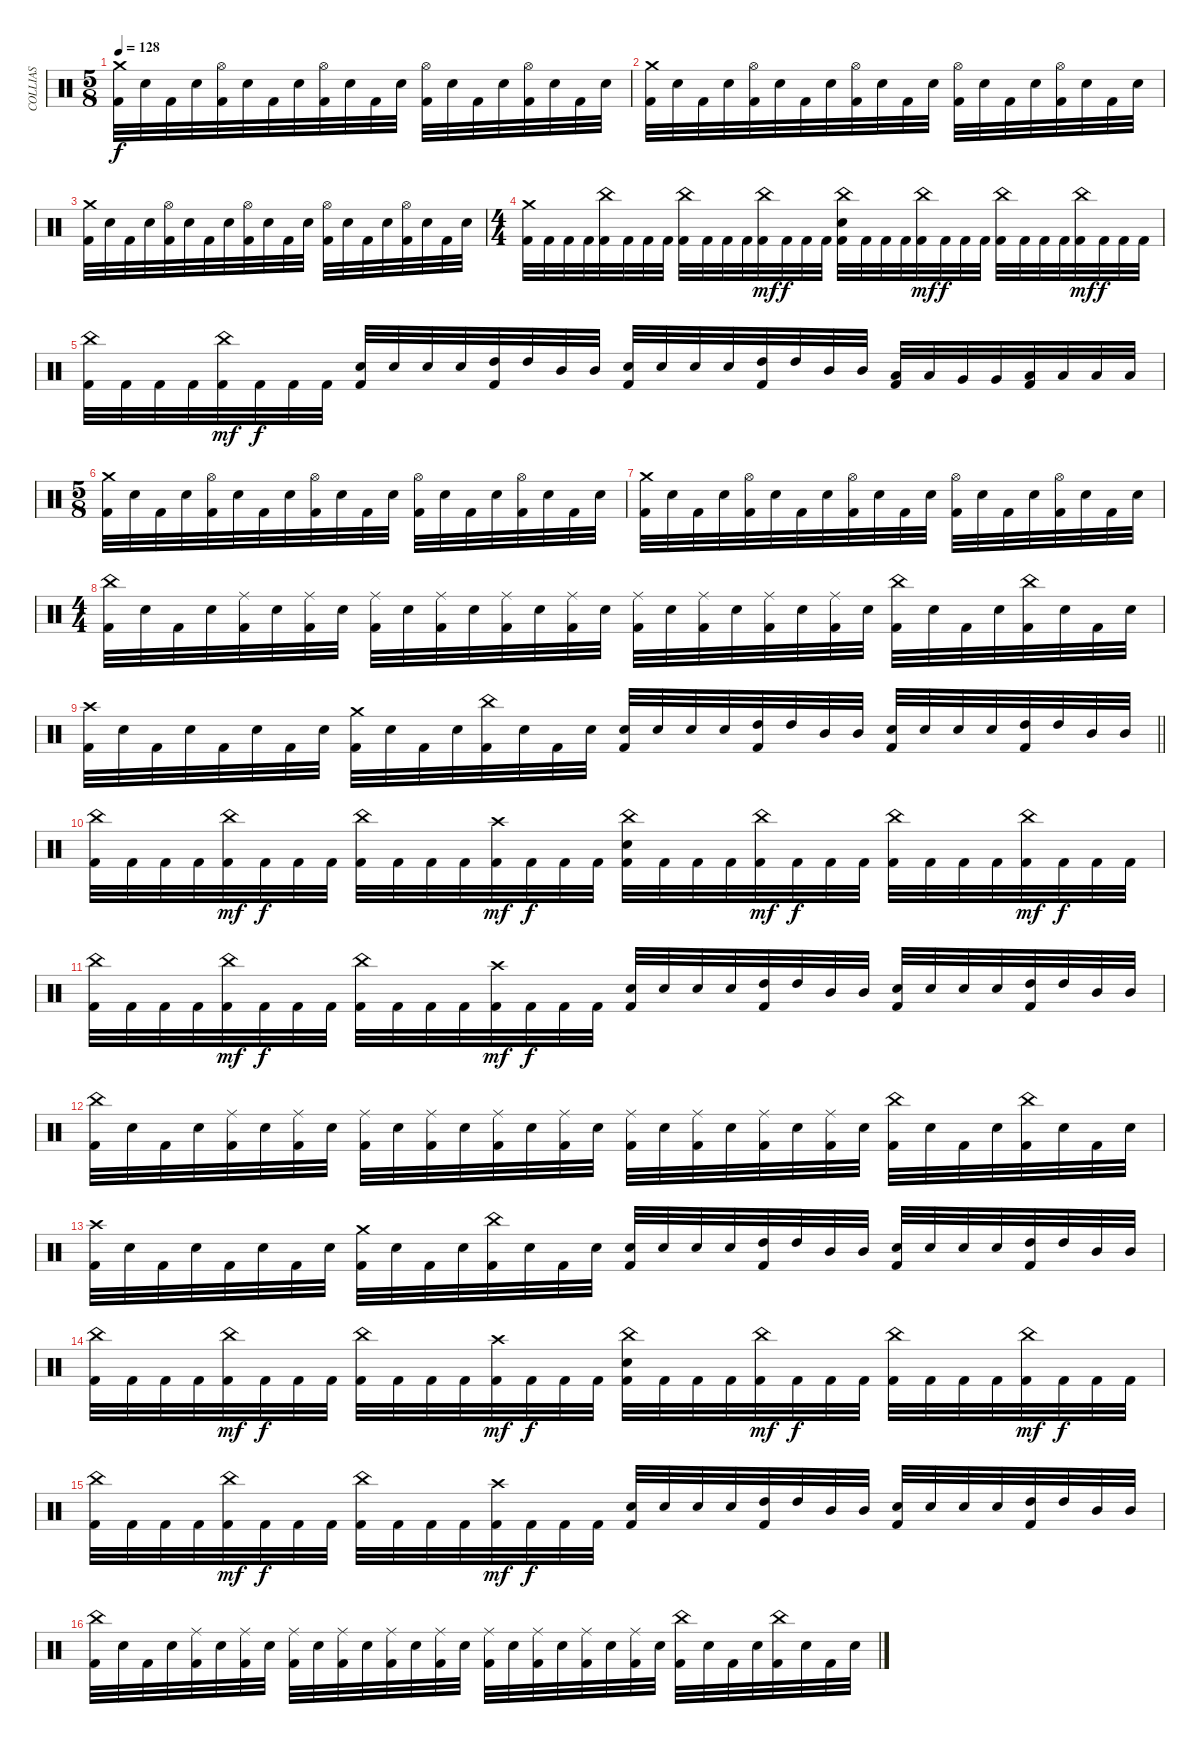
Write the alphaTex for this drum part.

\track ("COLLIAS" "COLLIAS") {instrument percussion}
\staff
\articulation defaults
\ts (5 8)
\tempo 128
\clef neutral
\ks c
("Crash medium (hit)" "Kick (hit) 2").32{dy f} "Electric Snare (hit)".32 "Kick (hit) 2".32 "Electric Snare (hit)".32 ("Hi-Hat (open)" "Kick (hit) 2").32 "Electric Snare (hit)".32 "Kick (hit) 2".32 "Electric Snare (hit)".32 ("Hi-Hat (open)" "Kick (hit) 2").32 "Electric Snare (hit)".32 "Kick (hit) 2".32 "Electric Snare (hit)".32 ("Hi-Hat (open)" "Kick (hit) 2").32 "Electric Snare (hit)".32 "Kick (hit) 2".32 "Electric Snare (hit)".32 ("Hi-Hat (open)" "Kick (hit) 2").32 "Electric Snare (hit)".32 "Kick (hit) 2".32 "Electric Snare (hit)".32 |
("Crash medium (hit)" "Kick (hit) 2").32 "Electric Snare (hit)".32 "Kick (hit) 2".32 "Electric Snare (hit)".32 ("Hi-Hat (open)" "Kick (hit) 2").32 "Electric Snare (hit)".32 "Kick (hit) 2".32 "Electric Snare (hit)".32 ("Hi-Hat (open)" "Kick (hit) 2").32 "Electric Snare (hit)".32 "Kick (hit) 2".32 "Electric Snare (hit)".32 ("Hi-Hat (open)" "Kick (hit) 2").32 "Electric Snare (hit)".32 "Kick (hit) 2".32 "Electric Snare (hit)".32 ("Hi-Hat (open)" "Kick (hit) 2").32 "Electric Snare (hit)".32 "Kick (hit) 2".32 "Electric Snare (hit)".32 |
("Crash medium (hit)" "Kick (hit) 2").32 "Electric Snare (hit)".32 "Kick (hit) 2".32 "Electric Snare (hit)".32 ("Hi-Hat (open)" "Kick (hit) 2").32 "Electric Snare (hit)".32 "Kick (hit) 2".32 "Electric Snare (hit)".32 ("Hi-Hat (open)" "Kick (hit) 2").32 "Electric Snare (hit)".32 "Kick (hit) 2".32 "Electric Snare (hit)".32 ("Hi-Hat (open)" "Kick (hit) 2").32 "Electric Snare (hit)".32 "Kick (hit) 2".32 "Electric Snare (hit)".32 ("Hi-Hat (open)" "Kick (hit) 2").32 "Electric Snare (hit)".32 "Kick (hit) 2".32 "Electric Snare (hit)".32 |
\ts (4 4)
("Crash medium (hit)" "Kick (hit) 2").32 "Kick (hit) 2".32 "Kick (hit) 2".32 "Kick (hit) 2".32 ("China (hit)" "Kick (hit) 2").32 "Kick (hit) 2".32 "Kick (hit) 2".32 "Kick (hit) 2".32 ("China (hit)" "Kick (hit) 2").32 "Kick (hit) 2".32 "Kick (hit) 2".32 "Kick (hit) 2".32 ("China (hit)" "Kick (hit) 2").32{dy mf} "Kick (hit) 2".32{dy f} "Kick (hit) 2".32 "Kick (hit) 2".32 ("China (hit)" "Electric Snare (hit)" "Kick (hit) 2").32 "Kick (hit) 2".32 "Kick (hit) 2".32 "Kick (hit) 2".32 ("China (hit)" "Kick (hit) 2").32{dy mf} "Kick (hit) 2".32{dy f} "Kick (hit) 2".32 "Kick (hit) 2".32 ("China (hit)" "Kick (hit) 2").32 "Kick (hit) 2".32 "Kick (hit) 2".32 "Kick (hit) 2".32 ("China (hit)" "Kick (hit) 2").32{dy mf} "Kick (hit) 2".32{dy f} "Kick (hit) 2".32 "Kick (hit) 2".32 |
("China (hit)" "Kick (hit) 2").32 "Kick (hit) 2".32 "Kick (hit) 2".32 "Kick (hit) 2".32 ("China (hit)" "Kick (hit) 2").32{dy mf} "Kick (hit) 2".32{dy f} "Kick (hit) 2".32 "Kick (hit) 2".32 ("Electric Snare (hit)" "Kick (hit) 2").32 "Electric Snare (hit)".32 "Electric Snare (hit)".32 "Electric Snare (hit)".32 ("High Tom (hit)" "Kick (hit) 2").32 "High Tom (hit)".32 "Mid Tom (hit)".32 "Mid Tom (hit)".32 ("Electric Snare (hit)" "Kick (hit) 2").32 "Electric Snare (hit)".32 "Electric Snare (hit)".32 "Electric Snare (hit)".32 ("High Tom (hit)" "Kick (hit) 2").32 "High Tom (hit)".32 "Mid Tom (hit)".32 "Mid Tom (hit)".32 ("Low Tom (hit)" "Kick (hit) 2").32 "Low Tom (hit)".32 "Very Low Tom (hit)".32 "Very Low Tom (hit)".32 ("Low Floor Tom (hit)" "Kick (hit) 2").32 "Low Floor Tom (hit)".32 "Low Floor Tom (hit)".32 "Low Floor Tom (hit)".32 |
\ts (5 8)
("Crash medium (hit)" "Kick (hit) 2").32 "Electric Snare (hit)".32 "Kick (hit) 2".32 "Electric Snare (hit)".32 ("Hi-Hat (open)" "Kick (hit) 2").32 "Electric Snare (hit)".32 "Kick (hit) 2".32 "Electric Snare (hit)".32 ("Hi-Hat (open)" "Kick (hit) 2").32 "Electric Snare (hit)".32 "Kick (hit) 2".32 "Electric Snare (hit)".32 ("Hi-Hat (open)" "Kick (hit) 2").32 "Electric Snare (hit)".32 "Kick (hit) 2".32 "Electric Snare (hit)".32 ("Hi-Hat (open)" "Kick (hit) 2").32 "Electric Snare (hit)".32 "Kick (hit) 2".32 "Electric Snare (hit)".32 |
("Crash medium (hit)" "Kick (hit) 2").32 "Electric Snare (hit)".32 "Kick (hit) 2".32 "Electric Snare (hit)".32 ("Hi-Hat (open)" "Kick (hit) 2").32 "Electric Snare (hit)".32 "Kick (hit) 2".32 "Electric Snare (hit)".32 ("Hi-Hat (open)" "Kick (hit) 2").32 "Electric Snare (hit)".32 "Kick (hit) 2".32 "Electric Snare (hit)".32 ("Hi-Hat (open)" "Kick (hit) 2").32 "Electric Snare (hit)".32 "Kick (hit) 2".32 "Electric Snare (hit)".32 ("Hi-Hat (open)" "Kick (hit) 2").32 "Electric Snare (hit)".32 "Kick (hit) 2".32 "Electric Snare (hit)".32 |
\ts (4 4)
("China (hit)" "Kick (hit) 2").32 "Electric Snare (hit)".32 "Kick (hit) 2".32 "Electric Snare (hit)".32 ("Ride (middle)" "Kick (hit) 2").32 "Electric Snare (hit)".32 ("Ride (middle)" "Kick (hit) 2").32 "Electric Snare (hit)".32 ("Ride (middle)" "Kick (hit) 2").32 "Electric Snare (hit)".32 ("Ride (middle)" "Kick (hit) 2").32 "Electric Snare (hit)".32 ("Ride (middle)" "Kick (hit) 2").32 "Electric Snare (hit)".32 ("Ride (middle)" "Kick (hit) 2").32 "Electric Snare (hit)".32 ("Ride (middle)" "Kick (hit) 2").32 "Electric Snare (hit)".32 ("Ride (middle)" "Kick (hit) 2").32 "Electric Snare (hit)".32 ("Ride (middle)" "Kick (hit) 2").32 "Electric Snare (hit)".32 ("Ride (middle)" "Kick (hit) 2").32 "Electric Snare (hit)".32 ("China (hit)" "Kick (hit) 2").32 "Electric Snare (hit)".32 "Kick (hit) 2".32 "Electric Snare (hit)".32 ("China (hit)" "Kick (hit) 2").32 "Electric Snare (hit)".32 "Kick (hit) 2".32 "Electric Snare (hit)".32 |
\barLineRight lightlight
("Crash high (hit)" "Kick (hit) 2").32 "Electric Snare (hit)".32 "Kick (hit) 2".32 "Electric Snare (hit)".32 "Kick (hit) 2".32 "Electric Snare (hit)".32 "Kick (hit) 2".32 "Electric Snare (hit)".32 ("Crash medium (hit)" "Kick (hit) 2").32 "Electric Snare (hit)".32 "Kick (hit) 2".32 "Electric Snare (hit)".32 ("China (hit)" "Kick (hit) 2").32 "Electric Snare (hit)".32 "Kick (hit) 2".32 "Electric Snare (hit)".32 ("Electric Snare (hit)" "Kick (hit) 2").32 "Electric Snare (hit)".32 "Electric Snare (hit)".32 "Electric Snare (hit)".32 ("High Tom (hit)" "Kick (hit) 2").32 "High Tom (hit)".32 "Mid Tom (hit)".32 "Mid Tom (hit)".32 ("Electric Snare (hit)" "Kick (hit) 2").32 "Electric Snare (hit)".32 "Electric Snare (hit)".32 "Electric Snare (hit)".32 ("High Tom (hit)" "Kick (hit) 2").32 "High Tom (hit)".32 "Mid Tom (hit)".32 "Mid Tom (hit)".32 |
("China (hit)" "Kick (hit) 2").32 "Kick (hit) 2".32 "Kick (hit) 2".32 "Kick (hit) 2".32 ("China (hit)" "Kick (hit) 2").32{dy mf} "Kick (hit) 2".32{dy f} "Kick (hit) 2".32 "Kick (hit) 2".32 ("China (hit)" "Kick (hit) 2").32 "Kick (hit) 2".32 "Kick (hit) 2".32 "Kick (hit) 2".32 ("Crash high (hit)" "Kick (hit) 2").32{dy mf} "Kick (hit) 2".32{dy f} "Kick (hit) 2".32 "Kick (hit) 2".32 ("China (hit)" "Electric Snare (hit)" "Kick (hit) 2").32 "Kick (hit) 2".32 "Kick (hit) 2".32 "Kick (hit) 2".32 ("China (hit)" "Kick (hit) 2").32{dy mf} "Kick (hit) 2".32{dy f} "Kick (hit) 2".32 "Kick (hit) 2".32 ("China (hit)" "Kick (hit) 2").32 "Kick (hit) 2".32 "Kick (hit) 2".32 "Kick (hit) 2".32 ("China (hit)" "Kick (hit) 2").32{dy mf} "Kick (hit) 2".32{dy f} "Kick (hit) 2".32 "Kick (hit) 2".32 |
("China (hit)" "Kick (hit) 2").32 "Kick (hit) 2".32 "Kick (hit) 2".32 "Kick (hit) 2".32 ("China (hit)" "Kick (hit) 2").32{dy mf} "Kick (hit) 2".32{dy f} "Kick (hit) 2".32 "Kick (hit) 2".32 ("China (hit)" "Kick (hit) 2").32 "Kick (hit) 2".32 "Kick (hit) 2".32 "Kick (hit) 2".32 ("Crash high (hit)" "Kick (hit) 2").32{dy mf} "Kick (hit) 2".32{dy f} "Kick (hit) 2".32 "Kick (hit) 2".32 ("Electric Snare (hit)" "Kick (hit) 2").32 "Electric Snare (hit)".32 "Electric Snare (hit)".32 "Electric Snare (hit)".32 ("High Tom (hit)" "Kick (hit) 2").32 "High Tom (hit)".32 "Mid Tom (hit)".32 "Mid Tom (hit)".32 ("Electric Snare (hit)" "Kick (hit) 2").32 "Electric Snare (hit)".32 "Electric Snare (hit)".32 "Electric Snare (hit)".32 ("High Tom (hit)" "Kick (hit) 2").32 "High Tom (hit)".32 "Mid Tom (hit)".32 "Mid Tom (hit)".32 |
("China (hit)" "Kick (hit) 2").32 "Electric Snare (hit)".32 "Kick (hit) 2".32 "Electric Snare (hit)".32 ("Ride (middle)" "Kick (hit) 2").32 "Electric Snare (hit)".32 ("Ride (middle)" "Kick (hit) 2").32 "Electric Snare (hit)".32 ("Ride (middle)" "Kick (hit) 2").32 "Electric Snare (hit)".32 ("Ride (middle)" "Kick (hit) 2").32 "Electric Snare (hit)".32 ("Ride (middle)" "Kick (hit) 2").32 "Electric Snare (hit)".32 ("Ride (middle)" "Kick (hit) 2").32 "Electric Snare (hit)".32 ("Ride (middle)" "Kick (hit) 2").32 "Electric Snare (hit)".32 ("Ride (middle)" "Kick (hit) 2").32 "Electric Snare (hit)".32 ("Ride (middle)" "Kick (hit) 2").32 "Electric Snare (hit)".32 ("Ride (middle)" "Kick (hit) 2").32 "Electric Snare (hit)".32 ("China (hit)" "Kick (hit) 2").32 "Electric Snare (hit)".32 "Kick (hit) 2".32 "Electric Snare (hit)".32 ("China (hit)" "Kick (hit) 2").32 "Electric Snare (hit)".32 "Kick (hit) 2".32 "Electric Snare (hit)".32 |
("Crash high (hit)" "Kick (hit) 2").32 "Electric Snare (hit)".32 "Kick (hit) 2".32 "Electric Snare (hit)".32 "Kick (hit) 2".32 "Electric Snare (hit)".32 "Kick (hit) 2".32 "Electric Snare (hit)".32 ("Crash medium (hit)" "Kick (hit) 2").32 "Electric Snare (hit)".32 "Kick (hit) 2".32 "Electric Snare (hit)".32 ("China (hit)" "Kick (hit) 2").32 "Electric Snare (hit)".32 "Kick (hit) 2".32 "Electric Snare (hit)".32 ("Electric Snare (hit)" "Kick (hit) 2").32 "Electric Snare (hit)".32 "Electric Snare (hit)".32 "Electric Snare (hit)".32 ("High Tom (hit)" "Kick (hit) 2").32 "High Tom (hit)".32 "Mid Tom (hit)".32 "Mid Tom (hit)".32 ("Electric Snare (hit)" "Kick (hit) 2").32 "Electric Snare (hit)".32 "Electric Snare (hit)".32 "Electric Snare (hit)".32 ("High Tom (hit)" "Kick (hit) 2").32 "High Tom (hit)".32 "Mid Tom (hit)".32 "Mid Tom (hit)".32 |
("China (hit)" "Kick (hit) 2").32 "Kick (hit) 2".32 "Kick (hit) 2".32 "Kick (hit) 2".32 ("China (hit)" "Kick (hit) 2").32{dy mf} "Kick (hit) 2".32{dy f} "Kick (hit) 2".32 "Kick (hit) 2".32 ("China (hit)" "Kick (hit) 2").32 "Kick (hit) 2".32 "Kick (hit) 2".32 "Kick (hit) 2".32 ("Crash high (hit)" "Kick (hit) 2").32{dy mf} "Kick (hit) 2".32{dy f} "Kick (hit) 2".32 "Kick (hit) 2".32 ("China (hit)" "Electric Snare (hit)" "Kick (hit) 2").32 "Kick (hit) 2".32 "Kick (hit) 2".32 "Kick (hit) 2".32 ("China (hit)" "Kick (hit) 2").32{dy mf} "Kick (hit) 2".32{dy f} "Kick (hit) 2".32 "Kick (hit) 2".32 ("China (hit)" "Kick (hit) 2").32 "Kick (hit) 2".32 "Kick (hit) 2".32 "Kick (hit) 2".32 ("China (hit)" "Kick (hit) 2").32{dy mf} "Kick (hit) 2".32{dy f} "Kick (hit) 2".32 "Kick (hit) 2".32 |
("China (hit)" "Kick (hit) 2").32 "Kick (hit) 2".32 "Kick (hit) 2".32 "Kick (hit) 2".32 ("China (hit)" "Kick (hit) 2").32{dy mf} "Kick (hit) 2".32{dy f} "Kick (hit) 2".32 "Kick (hit) 2".32 ("China (hit)" "Kick (hit) 2").32 "Kick (hit) 2".32 "Kick (hit) 2".32 "Kick (hit) 2".32 ("Crash high (hit)" "Kick (hit) 2").32{dy mf} "Kick (hit) 2".32{dy f} "Kick (hit) 2".32 "Kick (hit) 2".32 ("Electric Snare (hit)" "Kick (hit) 2").32 "Electric Snare (hit)".32 "Electric Snare (hit)".32 "Electric Snare (hit)".32 ("High Tom (hit)" "Kick (hit) 2").32 "High Tom (hit)".32 "Mid Tom (hit)".32 "Mid Tom (hit)".32 ("Electric Snare (hit)" "Kick (hit) 2").32 "Electric Snare (hit)".32 "Electric Snare (hit)".32 "Electric Snare (hit)".32 ("High Tom (hit)" "Kick (hit) 2").32 "High Tom (hit)".32 "Mid Tom (hit)".32 "Mid Tom (hit)".32 |
("China (hit)" "Kick (hit) 2").32 "Electric Snare (hit)".32 "Kick (hit) 2".32 "Electric Snare (hit)".32 ("Ride (middle)" "Kick (hit) 2").32 "Electric Snare (hit)".32 ("Ride (middle)" "Kick (hit) 2").32 "Electric Snare (hit)".32 ("Ride (middle)" "Kick (hit) 2").32 "Electric Snare (hit)".32 ("Ride (middle)" "Kick (hit) 2").32 "Electric Snare (hit)".32 ("Ride (middle)" "Kick (hit) 2").32 "Electric Snare (hit)".32 ("Ride (middle)" "Kick (hit) 2").32 "Electric Snare (hit)".32 ("Ride (middle)" "Kick (hit) 2").32 "Electric Snare (hit)".32 ("Ride (middle)" "Kick (hit) 2").32 "Electric Snare (hit)".32 ("Ride (middle)" "Kick (hit) 2").32 "Electric Snare (hit)".32 ("Ride (middle)" "Kick (hit) 2").32 "Electric Snare (hit)".32 ("China (hit)" "Kick (hit) 2").32 "Electric Snare (hit)".32 "Kick (hit) 2".32 "Electric Snare (hit)".32 ("China (hit)" "Kick (hit) 2").32 "Electric Snare (hit)".32 "Kick (hit) 2".32 "Electric Snare (hit)".32
